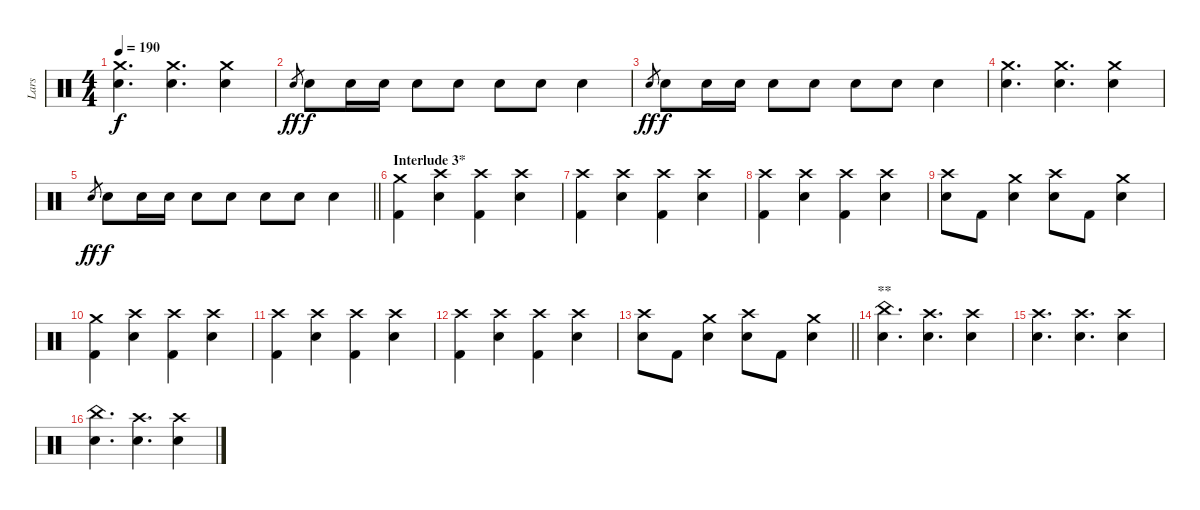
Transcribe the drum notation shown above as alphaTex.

\track ("Lars" "Lars") {instrument percussion}
\staff {score}
\articulation defaults
\ts (4 4)
\tempo 190
\clef neutral
\ks c
("Crash medium (hit)" "Electric Snare (hit)").4{d dy f} ("Crash medium (hit)" "Electric Snare (hit)").4{d} ("Crash medium (hit)" "Electric Snare (hit)").4 |
"Electric Snare (hit)".8{gr dy ff} "Electric Snare (hit)".8{dy f} "Electric Snare (hit)".16 "Electric Snare (hit)".16 "Electric Snare (hit)".8 "Electric Snare (hit)".8 "Electric Snare (hit)".8 "Electric Snare (hit)".8 "Electric Snare (hit)".4 |
"Electric Snare (hit)".8{gr dy ff} "Electric Snare (hit)".8{dy f} "Electric Snare (hit)".16 "Electric Snare (hit)".16 "Electric Snare (hit)".8 "Electric Snare (hit)".8 "Electric Snare (hit)".8 "Electric Snare (hit)".8 "Electric Snare (hit)".4 |
("Crash medium (hit)" "Electric Snare (hit)").4{d} ("Crash medium (hit)" "Electric Snare (hit)").4{d} ("Crash medium (hit)" "Electric Snare (hit)").4 |
\barLineRight lightlight "Electric Snare (hit)".8{gr dy ff} "Electric Snare (hit)".8{dy f} "Electric Snare (hit)".16 "Electric Snare (hit)".16 "Electric Snare (hit)".8 "Electric Snare (hit)".8 "Electric Snare (hit)".8 "Electric Snare (hit)".8 "Electric Snare (hit)".4
|
\section ("" "Interlude 3*")
("Crash medium (hit)" "Kick (hit) 2").4 ("Crash high (hit)" "Electric Snare (hit)").4 ("Crash high (hit)" "Kick (hit) 2").4 ("Crash high (hit)" "Electric Snare (hit)").4 |
("Crash high (hit)" "Kick (hit) 2").4 ("Crash high (hit)" "Electric Snare (hit)").4 ("Crash high (hit)" "Kick (hit) 2").4 ("Crash high (hit)" "Electric Snare (hit)").4 |
("Crash high (hit)" "Kick (hit) 2").4 ("Crash high (hit)" "Electric Snare (hit)").4 ("Crash high (hit)" "Kick (hit) 2").4 ("Crash high (hit)" "Electric Snare (hit)").4 |
("Crash high (hit)" "Electric Snare (hit)").8 "Kick (hit) 2".8 ("Crash medium (hit)" "Electric Snare (hit)").4 ("Crash high (hit)" "Electric Snare (hit)").8 "Kick (hit) 2".8 ("Crash medium (hit)" "Electric Snare (hit)").4 |
("Crash medium (hit)" "Kick (hit) 2").4 ("Crash high (hit)" "Electric Snare (hit)").4 ("Crash high (hit)" "Kick (hit) 2").4 ("Crash high (hit)" "Electric Snare (hit)").4 |
("Crash high (hit)" "Kick (hit) 2").4 ("Crash high (hit)" "Electric Snare (hit)").4 ("Crash high (hit)" "Kick (hit) 2").4 ("Crash high (hit)" "Electric Snare (hit)").4 |
("Crash high (hit)" "Kick (hit) 2").4 ("Crash high (hit)" "Electric Snare (hit)").4 ("Crash high (hit)" "Kick (hit) 2").4 ("Crash high (hit)" "Electric Snare (hit)").4 |
\barLineRight lightlight
("Crash high (hit)" "Electric Snare (hit)").8 "Kick (hit) 2".8 ("Crash medium (hit)" "Electric Snare (hit)").4 ("Crash high (hit)" "Electric Snare (hit)").8 "Kick (hit) 2".8 ("Crash medium (hit)" "Electric Snare (hit)").4 |
\section ("" "**")
("China (hit)" "Electric Snare (hit)").4{d} ("Crash high (hit)" "Electric Snare (hit)").4{d} ("Crash high (hit)" "Electric Snare (hit)").4 |
("Crash high (hit)" "Electric Snare (hit)").4{d} ("Crash high (hit)" "Electric Snare (hit)").4{d} ("Crash high (hit)" "Electric Snare (hit)").4 |
("China (hit)" "Electric Snare (hit)").4{d} ("Crash high (hit)" "Electric Snare (hit)").4{d} ("Crash high (hit)" "Electric Snare (hit)").4
